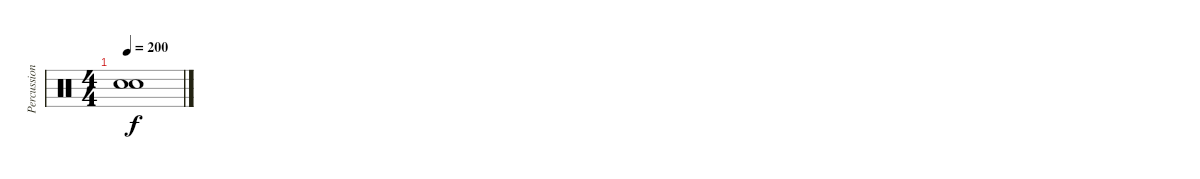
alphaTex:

\track ("Percussion" "Percussion") {instrument percussion}
\staff {score}
\articulation defaults
\ts (4 4)
\tempo 200
\clef neutral
\ks c
("Snare (hit)"{t} "Snare (hit)"{t}).1{dy f}
